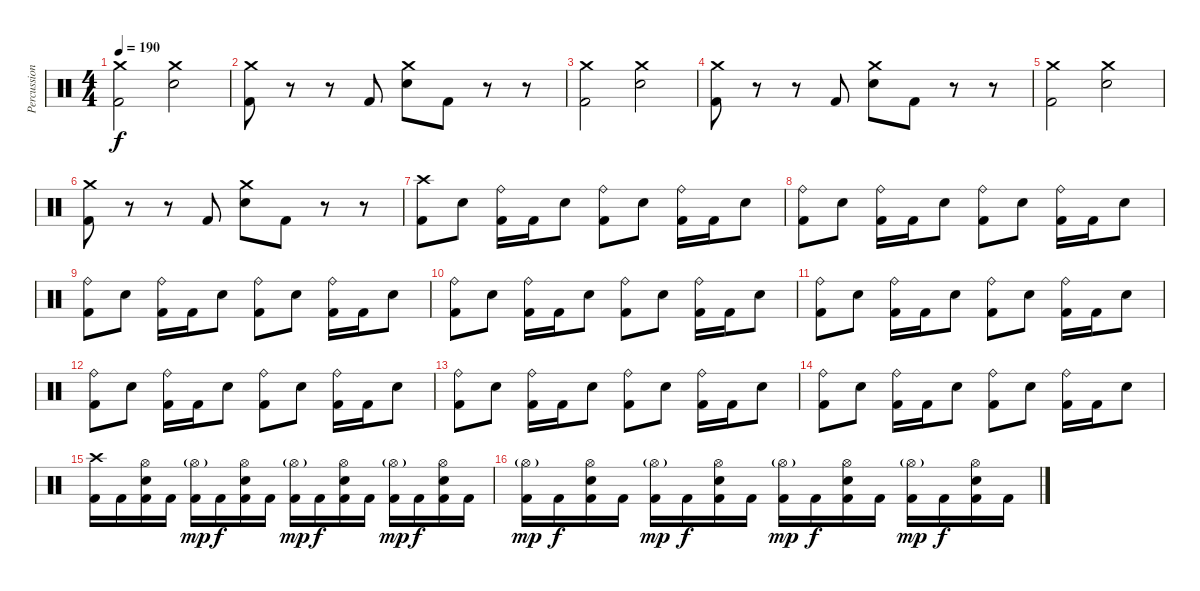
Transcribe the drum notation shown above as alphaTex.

\track ("Percussion" "Percussion") {instrument percussion}
\staff {score}
\articulation defaults
\ts (4 4)
\tempo 190
\clef neutral
\ks c
("Crash medium (hit)" "Kick (hit) 2").2{dy f} ("Crash medium (hit)" "Electric Snare (hit)").2 |
("Crash medium (hit)" "Kick (hit) 2").8 r.8 r.8 "Kick (hit) 2".8 ("Crash medium (hit)" "Electric Snare (hit)").8 "Kick (hit) 2".8 r.8 r.8 |
("Crash medium (hit)" "Kick (hit) 2").2 ("Crash medium (hit)" "Electric Snare (hit)").2 |
("Crash medium (hit)" "Kick (hit) 2").8 r.8 r.8 "Kick (hit) 2".8 ("Crash medium (hit)" "Electric Snare (hit)").8 "Kick (hit) 2".8 r.8 r.8 |
("Crash medium (hit)" "Kick (hit) 2").2 ("Crash medium (hit)" "Electric Snare (hit)").2 |
("Crash medium (hit)" "Kick (hit) 2").8 r.8 r.8 "Kick (hit) 2".8 ("Crash medium (hit)" "Electric Snare (hit)").8 "Kick (hit) 2".8 r.8 r.8 |
("Crash high (hit)" "Kick (hit) 2").8 "Electric Snare (hit)".8 ("Ride (bell)" "Kick (hit) 2").16 "Kick (hit) 2".16 "Electric Snare (hit)".8 ("Ride (bell)" "Kick (hit) 2").8 "Electric Snare (hit)".8 ("Ride (bell)" "Kick (hit) 2").16 "Kick (hit) 2".16 "Electric Snare (hit)".8 |
("Ride (bell)" "Kick (hit) 2").8 "Electric Snare (hit)".8 ("Ride (bell)" "Kick (hit) 2").16 "Kick (hit) 2".16 "Electric Snare (hit)".8 ("Ride (bell)" "Kick (hit) 2").8 "Electric Snare (hit)".8 ("Ride (bell)" "Kick (hit) 2").16 "Kick (hit) 2".16 "Electric Snare (hit)".8 |
("Ride (bell)" "Kick (hit) 2").8 "Electric Snare (hit)".8 ("Ride (bell)" "Kick (hit) 2").16 "Kick (hit) 2".16 "Electric Snare (hit)".8 ("Ride (bell)" "Kick (hit) 2").8 "Electric Snare (hit)".8 ("Ride (bell)" "Kick (hit) 2").16 "Kick (hit) 2".16 "Electric Snare (hit)".8 |
("Ride (bell)" "Kick (hit) 2").8 "Electric Snare (hit)".8 ("Ride (bell)" "Kick (hit) 2").16 "Kick (hit) 2".16 "Electric Snare (hit)".8 ("Ride (bell)" "Kick (hit) 2").8 "Electric Snare (hit)".8 ("Ride (bell)" "Kick (hit) 2").16 "Kick (hit) 2".16 "Electric Snare (hit)".8 |
("Ride (bell)" "Kick (hit) 2").8 "Electric Snare (hit)".8 ("Ride (bell)" "Kick (hit) 2").16 "Kick (hit) 2".16 "Electric Snare (hit)".8 ("Ride (bell)" "Kick (hit) 2").8 "Electric Snare (hit)".8 ("Ride (bell)" "Kick (hit) 2").16 "Kick (hit) 2".16 "Electric Snare (hit)".8 |
("Ride (bell)" "Kick (hit) 2").8 "Electric Snare (hit)".8 ("Ride (bell)" "Kick (hit) 2").16 "Kick (hit) 2".16 "Electric Snare (hit)".8 ("Ride (bell)" "Kick (hit) 2").8 "Electric Snare (hit)".8 ("Ride (bell)" "Kick (hit) 2").16 "Kick (hit) 2".16 "Electric Snare (hit)".8 |
("Ride (bell)" "Kick (hit) 2").8 "Electric Snare (hit)".8 ("Ride (bell)" "Kick (hit) 2").16 "Kick (hit) 2".16 "Electric Snare (hit)".8 ("Ride (bell)" "Kick (hit) 2").8 "Electric Snare (hit)".8 ("Ride (bell)" "Kick (hit) 2").16 "Kick (hit) 2".16 "Electric Snare (hit)".8 |
("Ride (bell)" "Kick (hit) 2").8 "Electric Snare (hit)".8 ("Ride (bell)" "Kick (hit) 2").16 "Kick (hit) 2".16 "Electric Snare (hit)".8 ("Ride (bell)" "Kick (hit) 2").8 "Electric Snare (hit)".8 ("Ride (bell)" "Kick (hit) 2").16 "Kick (hit) 2".16 "Electric Snare (hit)".8 |
("Crash high (hit)" "Kick (hit) 2").16 "Kick (hit) 2".16 ("Hi-Hat (open)" "Electric Snare (hit)" "Kick (hit) 2").16 "Kick (hit) 2".16 ("Hi-Hat (open)"{g} "Kick (hit) 2").16{dy mp} "Kick (hit) 2".16{dy f} ("Hi-Hat (open)" "Electric Snare (hit)" "Kick (hit) 2").16 "Kick (hit) 2".16 ("Hi-Hat (open)"{g} "Kick (hit) 2").16{dy mp} "Kick (hit) 2".16{dy f} ("Hi-Hat (open)" "Electric Snare (hit)" "Kick (hit) 2").16 "Kick (hit) 2".16 ("Hi-Hat (open)"{g} "Kick (hit) 2").16{dy mp} "Kick (hit) 2".16{dy f} ("Hi-Hat (open)" "Electric Snare (hit)" "Kick (hit) 2").16 "Kick (hit) 2".16 |
("Hi-Hat (open)"{g} "Kick (hit) 2").16{dy mp} "Kick (hit) 2".16{dy f} ("Hi-Hat (open)" "Electric Snare (hit)" "Kick (hit) 2").16 "Kick (hit) 2".16 ("Hi-Hat (open)"{g} "Kick (hit) 2").16{dy mp} "Kick (hit) 2".16{dy f} ("Hi-Hat (open)" "Electric Snare (hit)" "Kick (hit) 2").16 "Kick (hit) 2".16 ("Hi-Hat (open)"{g} "Kick (hit) 2").16{dy mp} "Kick (hit) 2".16{dy f} ("Hi-Hat (open)" "Electric Snare (hit)" "Kick (hit) 2").16 "Kick (hit) 2".16 ("Hi-Hat (open)"{g} "Kick (hit) 2").16{dy mp} "Kick (hit) 2".16{dy f} ("Hi-Hat (open)" "Electric Snare (hit)" "Kick (hit) 2").16 "Kick (hit) 2".16
